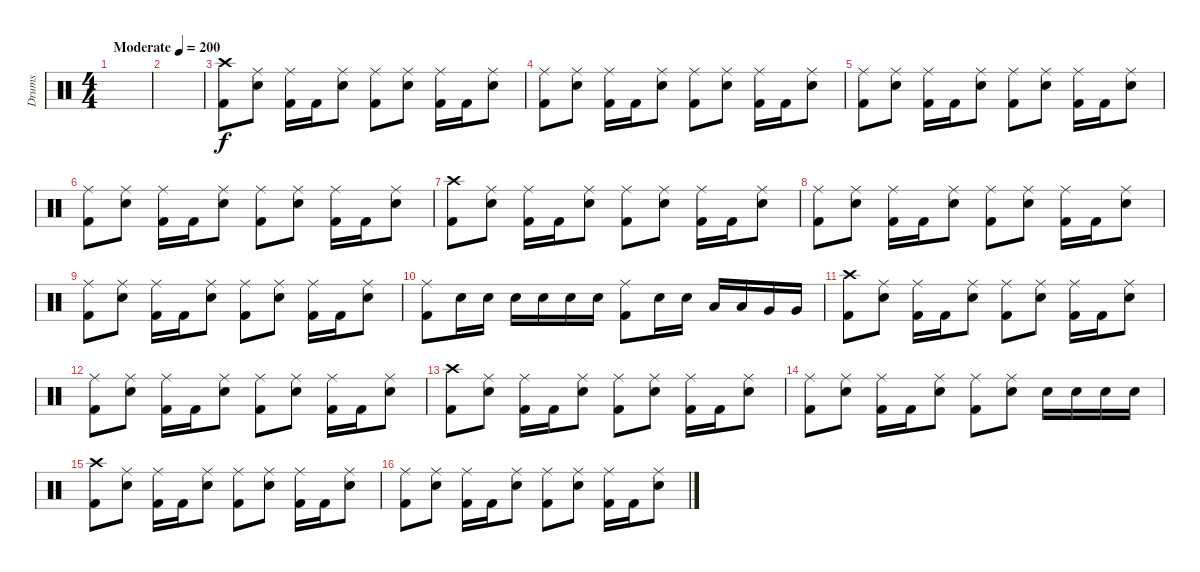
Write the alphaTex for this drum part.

\track ("Drums" "Drums") {instrument percussion}
\staff {score}
\articulation defaults
\ts (4 4)
\tempo (200 "Moderate")
\clef neutral
\ks c
|
|
("Crash high (hit)" "Kick (hit) 2").8 ("Ride (middle)" "Electric Snare (hit)").8 ("Ride (middle)" "Kick (hit) 2").16 "Kick (hit) 2".16 ("Ride (middle)" "Electric Snare (hit)").8 ("Ride (middle)" "Kick (hit) 2").8 ("Ride (middle)" "Electric Snare (hit)").8 ("Ride (middle)" "Kick (hit) 2").16 "Kick (hit) 2".16 ("Ride (middle)" "Electric Snare (hit)").8 |
("Ride (middle)" "Kick (hit) 2").8 ("Ride (middle)" "Electric Snare (hit)").8 ("Ride (middle)" "Kick (hit) 2").16 "Kick (hit) 2".16 ("Ride (middle)" "Electric Snare (hit)").8 ("Ride (middle)" "Kick (hit) 2").8 ("Ride (middle)" "Electric Snare (hit)").8 ("Ride (middle)" "Kick (hit) 2").16 "Kick (hit) 2".16 ("Ride (middle)" "Electric Snare (hit)").8 |
("Ride (middle)" "Kick (hit) 2").8 ("Ride (middle)" "Electric Snare (hit)").8 ("Ride (middle)" "Kick (hit) 2").16 "Kick (hit) 2".16 ("Ride (middle)" "Electric Snare (hit)").8 ("Ride (middle)" "Kick (hit) 2").8 ("Ride (middle)" "Electric Snare (hit)").8 ("Ride (middle)" "Kick (hit) 2").16 "Kick (hit) 2".16 ("Ride (middle)" "Electric Snare (hit)").8 |
("Ride (middle)" "Kick (hit) 2").8 ("Ride (middle)" "Electric Snare (hit)").8 ("Ride (middle)" "Kick (hit) 2").16 "Kick (hit) 2".16 ("Ride (middle)" "Electric Snare (hit)").8 ("Ride (middle)" "Kick (hit) 2").8 ("Ride (middle)" "Electric Snare (hit)").8 ("Ride (middle)" "Kick (hit) 2").16 "Kick (hit) 2".16 ("Ride (middle)" "Electric Snare (hit)").8 |
("Crash high (hit)" "Kick (hit) 2").8 ("Ride (middle)" "Electric Snare (hit)").8 ("Ride (middle)" "Kick (hit) 2").16 "Kick (hit) 2".16 ("Ride (middle)" "Electric Snare (hit)").8 ("Ride (middle)" "Kick (hit) 2").8 ("Ride (middle)" "Electric Snare (hit)").8 ("Ride (middle)" "Kick (hit) 2").16 "Kick (hit) 2".16 ("Ride (middle)" "Electric Snare (hit)").8 |
("Ride (middle)" "Kick (hit) 2").8 ("Ride (middle)" "Electric Snare (hit)").8 ("Ride (middle)" "Kick (hit) 2").16 "Kick (hit) 2".16 ("Ride (middle)" "Electric Snare (hit)").8 ("Ride (middle)" "Kick (hit) 2").8 ("Ride (middle)" "Electric Snare (hit)").8 ("Ride (middle)" "Kick (hit) 2").16 "Kick (hit) 2".16 ("Ride (middle)" "Electric Snare (hit)").8 |
("Ride (middle)" "Kick (hit) 2").8 ("Ride (middle)" "Electric Snare (hit)").8 ("Ride (middle)" "Kick (hit) 2").16 "Kick (hit) 2".16 ("Ride (middle)" "Electric Snare (hit)").8 ("Ride (middle)" "Kick (hit) 2").8 ("Ride (middle)" "Electric Snare (hit)").8 ("Ride (middle)" "Kick (hit) 2").16 "Kick (hit) 2".16 ("Ride (middle)" "Electric Snare (hit)").8 |
("Ride (middle)" "Kick (hit) 2").8 "Electric Snare (hit)".16 "Electric Snare (hit)".16 "Electric Snare (hit)".16 "Electric Snare (hit)".16 "Electric Snare (hit)".16 "Electric Snare (hit)".16 ("Ride (middle)" "Kick (hit) 2").8 "Electric Snare (hit)".16 "Electric Snare (hit)".16 "Low Tom (hit)".16 "Low Tom (hit)".16 "Very Low Tom (hit)".16 "Very Low Tom (hit)".16 |
("Crash high (hit)" "Kick (hit) 2").8 ("Ride (middle)" "Electric Snare (hit)").8 ("Ride (middle)" "Kick (hit) 2").16 "Kick (hit) 2".16 ("Ride (middle)" "Electric Snare (hit)").8 ("Ride (middle)" "Kick (hit) 2").8 ("Ride (middle)" "Electric Snare (hit)").8 ("Ride (middle)" "Kick (hit) 2").16 "Kick (hit) 2".16 ("Ride (middle)" "Electric Snare (hit)").8 |
("Ride (middle)" "Kick (hit) 2").8 ("Ride (middle)" "Electric Snare (hit)").8 ("Ride (middle)" "Kick (hit) 2").16 "Kick (hit) 2".16 ("Ride (middle)" "Electric Snare (hit)").8 ("Ride (middle)" "Kick (hit) 2").8 ("Ride (middle)" "Electric Snare (hit)").8 ("Ride (middle)" "Kick (hit) 2").16 "Kick (hit) 2".16 ("Ride (middle)" "Electric Snare (hit)").8 |
("Crash high (hit)" "Kick (hit) 2").8 ("Ride (middle)" "Electric Snare (hit)").8 ("Ride (middle)" "Kick (hit) 2").16 "Kick (hit) 2".16 ("Ride (middle)" "Electric Snare (hit)").8 ("Ride (middle)" "Kick (hit) 2").8 ("Ride (middle)" "Electric Snare (hit)").8 ("Ride (middle)" "Kick (hit) 2").16 "Kick (hit) 2".16 ("Ride (middle)" "Electric Snare (hit)").8 |
("Ride (middle)" "Kick (hit) 2").8 ("Ride (middle)" "Electric Snare (hit)").8 ("Ride (middle)" "Kick (hit) 2").16 "Kick (hit) 2".16 ("Ride (middle)" "Electric Snare (hit)").8 ("Ride (middle)" "Kick (hit) 2").8 ("Ride (middle)" "Electric Snare (hit)").8 "Electric Snare (hit)".16 "Electric Snare (hit)".16 "Electric Snare (hit)".16 "Electric Snare (hit)".16 |
("Crash high (hit)" "Kick (hit) 2").8 ("Ride (middle)" "Electric Snare (hit)").8 ("Ride (middle)" "Kick (hit) 2").16 "Kick (hit) 2".16 ("Ride (middle)" "Electric Snare (hit)").8 ("Ride (middle)" "Kick (hit) 2").8 ("Ride (middle)" "Electric Snare (hit)").8 ("Ride (middle)" "Kick (hit) 2").16 "Kick (hit) 2".16 ("Ride (middle)" "Electric Snare (hit)").8 |
("Ride (middle)" "Kick (hit) 2").8 ("Ride (middle)" "Electric Snare (hit)").8 ("Ride (middle)" "Kick (hit) 2").16 "Kick (hit) 2".16 ("Ride (middle)" "Electric Snare (hit)").8 ("Ride (middle)" "Kick (hit) 2").8 ("Ride (middle)" "Electric Snare (hit)").8 ("Ride (middle)" "Kick (hit) 2").16 "Kick (hit) 2".16 ("Ride (middle)" "Electric Snare (hit)").8
